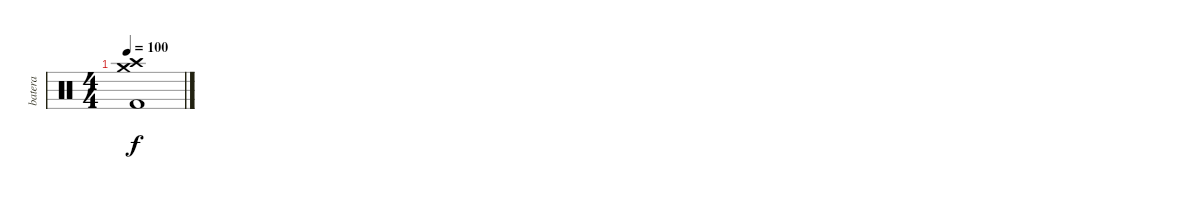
\track ("batera" "batera") {instrument percussion}
\staff {score}
\articulation defaults
\ts (4 4)
\tempo 100
\clef neutral
\ks c
("Crash high (hit)" "Crash medium (hit)" "Kick (hit) 2").1{dy f}
